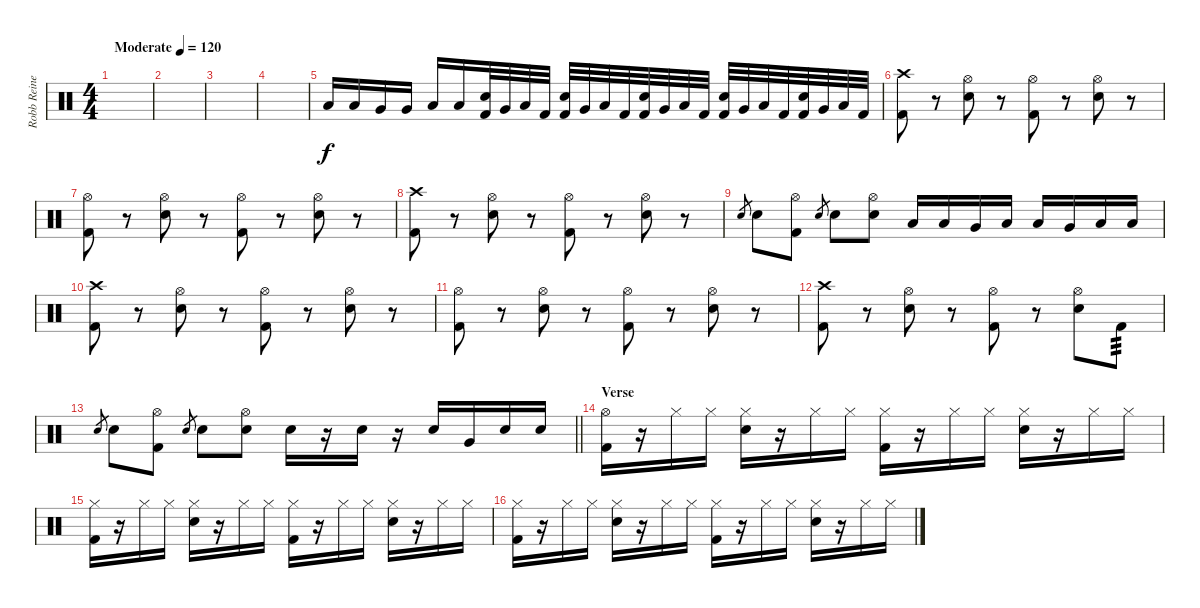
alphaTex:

\track ("Robb Reiner" "Robb Reine") {instrument percussion}
\staff {score}
\articulation defaults
\ts (4 4)
\tempo (120 "Moderate")
\clef neutral
\ks c
|
|
|
|
"Low Tom (hit)".16 "Low Tom (hit)".16 "Very Low Tom (hit)".16 "Very Low Tom (hit)".16 "Low Floor Tom (hit)".16 "Low Floor Tom (hit)".16 ("Snare (hit) 2" "Kick (hit) 2").32 "Very Low Tom (hit)".32 "Low Floor Tom (hit)".32 "Kick (hit) 2".32 ("Snare (hit) 2" "Kick (hit) 2").32 "Very Low Tom (hit)".32 "Low Floor Tom (hit)".32 "Kick (hit) 2".32 ("Snare (hit) 2" "Kick (hit) 2").32 "Very Low Tom (hit)".32 "Low Floor Tom (hit)".32 "Kick (hit) 2".32 ("Snare (hit) 2" "Kick (hit) 2").32 "Very Low Tom (hit)".32 "Low Floor Tom (hit)".32 "Kick (hit) 2".32 ("Snare (hit) 2" "Kick (hit) 2").32 "Very Low Tom (hit)".32 "Low Floor Tom (hit)".32 "Kick (hit) 2".32 |
("Kick (hit) 2" "Crash high (hit)").8 r.8 ("Snare (hit) 2" "Hi-Hat (open)").8 r.8 ("Kick (hit) 2" "Hi-Hat (open)").8 r.8 ("Snare (hit) 2" "Hi-Hat (open)").8 r.8 |
("Kick (hit) 2" "Hi-Hat (open)").8 r.8 ("Snare (hit) 2" "Hi-Hat (open)").8 r.8 ("Kick (hit) 2" "Hi-Hat (open)").8 r.8 ("Snare (hit) 2" "Hi-Hat (open)").8 r.8 |
("Kick (hit) 2" "Crash high (hit)").8 r.8 ("Snare (hit) 2" "Hi-Hat (open)").8 r.8 ("Kick (hit) 2" "Hi-Hat (open)").8 r.8 ("Snare (hit) 2" "Hi-Hat (open)").8 r.8 |
"Snare (hit) 2".8{gr} "Snare (hit) 2".8 ("Kick (hit) 2" "Hi-Hat (open)").8 "Snare (hit) 2".8{gr} "Snare (hit) 2".8 ("Snare (hit) 2" "Hi-Hat (open)").8 "Low Tom (hit)".16 "Low Tom (hit)".16 "Very Low Tom (hit)".16 "Low Floor Tom (hit)".16 "Low Tom (hit)".16 "Very Low Tom (hit)".16 "Low Floor Tom (hit)".16 "Low Tom (hit)".16 |
("Kick (hit) 2" "Crash high (hit)").8 r.8 ("Snare (hit) 2" "Hi-Hat (open)").8 r.8 ("Kick (hit) 2" "Hi-Hat (open)").8 r.8 ("Snare (hit) 2" "Hi-Hat (open)").8 r.8 |
("Kick (hit) 2" "Hi-Hat (open)").8 r.8 ("Snare (hit) 2" "Hi-Hat (open)").8 r.8 ("Kick (hit) 2" "Hi-Hat (open)").8 r.8 ("Snare (hit) 2" "Hi-Hat (open)").8 r.8 |
("Kick (hit) 2" "Crash high (hit)").8 r.8 ("Snare (hit) 2" "Hi-Hat (open)").8 r.8 ("Kick (hit) 2" "Hi-Hat (open)").8 r.8 ("Snare (hit) 2" "Hi-Hat (open)").8 "Kick (hit) 2".8{tp 3} |
\barLineRight lightlight "Snare (hit) 2".8{gr} "Snare (hit) 2".8
("Kick (hit) 2" "Hi-Hat (open)").8 "Snare (hit) 2".8{gr} "Snare (hit) 2".8 ("Snare (hit) 2" "Hi-Hat (open)").8 "Snare (hit) 2".16 r.16 "Snare (hit) 2".16 r.16 "Snare (hit) 2".16 "Very Low Tom (hit)".16 "Snare (hit) 2".16 "Snare (hit) 2".16 |
\section ("" "Verse")
("Hi-Hat (open)" "Kick (hit) 2").16 r.16 "Hi-Hat (closed)".16 "Hi-Hat (closed)".16 ("Hi-Hat (closed)" "Snare (hit) 2").16 r.16 "Hi-Hat (closed)".16 "Hi-Hat (closed)".16 ("Hi-Hat (closed)" "Kick (hit) 2").16 r.16 "Hi-Hat (closed)".16 "Hi-Hat (closed)".16 ("Hi-Hat (closed)" "Snare (hit) 2").16 r.16 "Hi-Hat (closed)".16 "Hi-Hat (closed)".16 |
("Hi-Hat (closed)" "Kick (hit) 2").16 r.16 "Hi-Hat (closed)".16 "Hi-Hat (closed)".16 ("Hi-Hat (closed)" "Snare (hit) 2").16 r.16 "Hi-Hat (closed)".16 "Hi-Hat (closed)".16 ("Hi-Hat (closed)" "Kick (hit) 2").16 r.16 "Hi-Hat (closed)".16 "Hi-Hat (closed)".16 ("Hi-Hat (closed)" "Snare (hit) 2").16 r.16 "Hi-Hat (closed)".16 "Hi-Hat (closed)".16 |
("Hi-Hat (closed)" "Kick (hit) 2").16 r.16 "Hi-Hat (closed)".16 "Hi-Hat (closed)".16 ("Hi-Hat (closed)" "Snare (hit) 2").16 r.16 "Hi-Hat (closed)".16 "Hi-Hat (closed)".16 ("Hi-Hat (closed)" "Kick (hit) 2").16 r.16 "Hi-Hat (closed)".16 "Hi-Hat (closed)".16 ("Hi-Hat (closed)" "Snare (hit) 2").16 r.16 "Hi-Hat (closed)".16 "Hi-Hat (closed)".16
